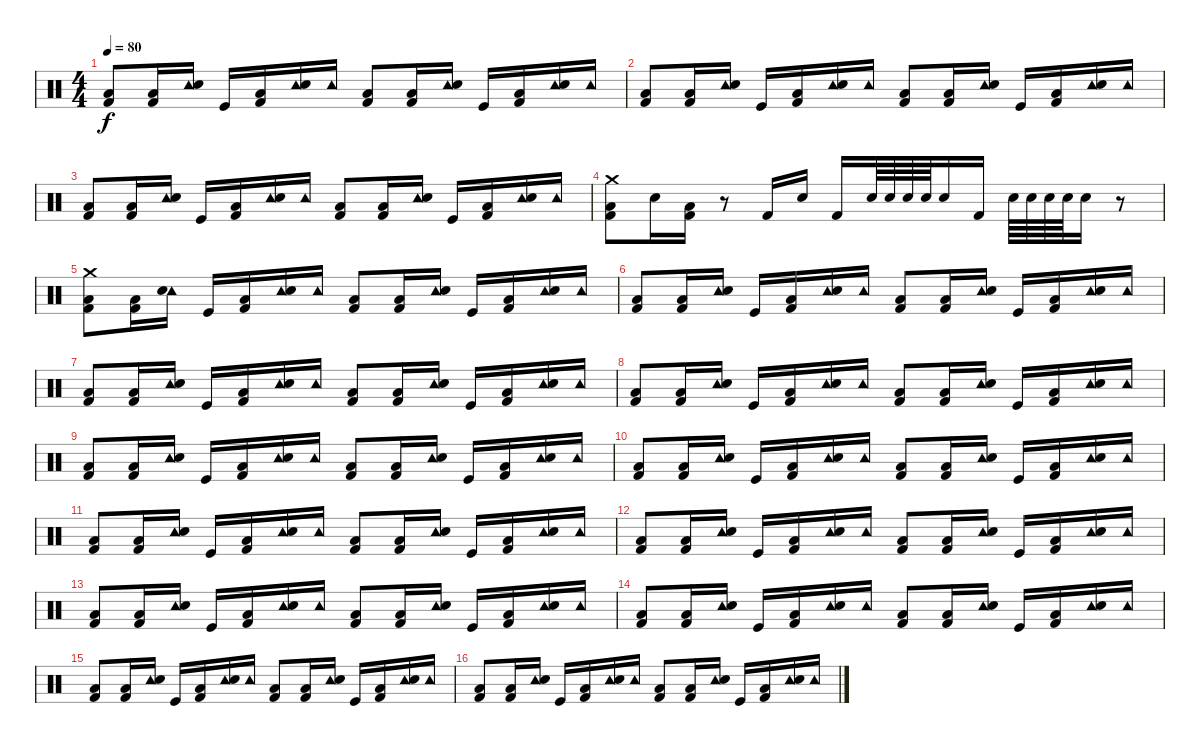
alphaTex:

\track "" {instrument percussion}
\staff {score}
\articulation defaults
\ts (4 4)
\tempo 80
\clef neutral
\ks c
("Kick (hit) 2" "Low Floor Tom (hit)").8{dy f} ("Kick (hit) 2" "Low Floor Tom (hit)").16 ("Tambourine (hit)" "Electric Snare (hit)").16 "Kick (hit)".16 ("Kick (hit) 2" "Low Floor Tom (hit)").16 ("Tambourine (hit)" "Electric Snare (hit)").16 "Tambourine (hit)".16 ("Kick (hit) 2" "Low Floor Tom (hit)").8 ("Kick (hit) 2" "Low Floor Tom (hit)").16 ("Tambourine (hit)" "Electric Snare (hit)").16 "Kick (hit)".16 ("Kick (hit) 2" "Low Floor Tom (hit)").16 ("Tambourine (hit)" "Electric Snare (hit)").16 "Tambourine (hit)".16 |
("Kick (hit) 2" "Low Floor Tom (hit)").8 ("Kick (hit) 2" "Low Floor Tom (hit)").16 ("Tambourine (hit)" "Electric Snare (hit)").16 "Kick (hit)".16 ("Kick (hit) 2" "Low Floor Tom (hit)").16 ("Tambourine (hit)" "Electric Snare (hit)").16 "Tambourine (hit)".16 ("Kick (hit) 2" "Low Floor Tom (hit)").8 ("Kick (hit) 2" "Low Floor Tom (hit)").16 ("Tambourine (hit)" "Electric Snare (hit)").16 "Kick (hit)".16 ("Kick (hit) 2" "Low Floor Tom (hit)").16 ("Tambourine (hit)" "Electric Snare (hit)").16 "Tambourine (hit)".16 |
("Kick (hit) 2" "Low Floor Tom (hit)").8 ("Kick (hit) 2" "Low Floor Tom (hit)").16 ("Tambourine (hit)" "Electric Snare (hit)").16 "Kick (hit)".16 ("Kick (hit) 2" "Low Floor Tom (hit)").16 ("Tambourine (hit)" "Electric Snare (hit)").16 "Tambourine (hit)".16 ("Kick (hit) 2" "Low Floor Tom (hit)").8 ("Kick (hit) 2" "Low Floor Tom (hit)").16 ("Tambourine (hit)" "Electric Snare (hit)").16 "Kick (hit)".16 ("Kick (hit) 2" "Low Floor Tom (hit)").16 ("Tambourine (hit)" "Electric Snare (hit)").16 "Tambourine (hit)".16 |
("Crash medium (hit)" "Kick (hit) 2" "Low Floor Tom (hit)").8 "Electric Snare (hit)".16 ("Kick (hit) 2" "Low Floor Tom (hit)").16 r.8 "Kick (hit) 2".16 "Electric Snare (hit)".16 "Kick (hit) 2".16 "Electric Snare (hit)".64 "Electric Snare (hit)".64 "Electric Snare (hit)".64 "Electric Snare (hit)".64 "Electric Snare (hit)".16 "Kick (hit) 2".16 "Electric Snare (hit)".64 "Electric Snare (hit)".64 "Electric Snare (hit)".64 "Electric Snare (hit)".64 "Electric Snare (hit)".16 r.8 |
("Crash medium (hit)" "Kick (hit) 2" "Low Floor Tom (hit)").8 ("Kick (hit) 2" "Low Floor Tom (hit)").16 ("Tambourine (hit)" "Electric Snare (hit)").16 "Kick (hit)".16 ("Kick (hit) 2" "Low Floor Tom (hit)").16 ("Tambourine (hit)" "Electric Snare (hit)").16 "Tambourine (hit)".16 ("Kick (hit) 2" "Low Floor Tom (hit)").8 ("Kick (hit) 2" "Low Floor Tom (hit)").16 ("Tambourine (hit)" "Electric Snare (hit)").16 "Kick (hit)".16 ("Kick (hit) 2" "Low Floor Tom (hit)").16 ("Tambourine (hit)" "Electric Snare (hit)").16 "Tambourine (hit)".16 |
("Kick (hit) 2" "Low Floor Tom (hit)").8 ("Kick (hit) 2" "Low Floor Tom (hit)").16 ("Tambourine (hit)" "Electric Snare (hit)").16 "Kick (hit)".16 ("Kick (hit) 2" "Low Floor Tom (hit)").16 ("Tambourine (hit)" "Electric Snare (hit)").16 "Tambourine (hit)".16 ("Kick (hit) 2" "Low Floor Tom (hit)").8 ("Kick (hit) 2" "Low Floor Tom (hit)").16 ("Tambourine (hit)" "Electric Snare (hit)").16 "Kick (hit)".16 ("Kick (hit) 2" "Low Floor Tom (hit)").16 ("Tambourine (hit)" "Electric Snare (hit)").16 "Tambourine (hit)".16 |
("Kick (hit) 2" "Low Floor Tom (hit)").8 ("Kick (hit) 2" "Low Floor Tom (hit)").16 ("Tambourine (hit)" "Electric Snare (hit)").16 "Kick (hit)".16 ("Kick (hit) 2" "Low Floor Tom (hit)").16 ("Tambourine (hit)" "Electric Snare (hit)").16 "Tambourine (hit)".16 ("Kick (hit) 2" "Low Floor Tom (hit)").8 ("Kick (hit) 2" "Low Floor Tom (hit)").16 ("Tambourine (hit)" "Electric Snare (hit)").16 "Kick (hit)".16 ("Kick (hit) 2" "Low Floor Tom (hit)").16 ("Tambourine (hit)" "Electric Snare (hit)").16 "Tambourine (hit)".16 |
("Kick (hit) 2" "Low Floor Tom (hit)").8 ("Kick (hit) 2" "Low Floor Tom (hit)").16 ("Tambourine (hit)" "Electric Snare (hit)").16 "Kick (hit)".16 ("Kick (hit) 2" "Low Floor Tom (hit)").16 ("Tambourine (hit)" "Electric Snare (hit)").16 "Tambourine (hit)".16 ("Kick (hit) 2" "Low Floor Tom (hit)").8 ("Kick (hit) 2" "Low Floor Tom (hit)").16 ("Tambourine (hit)" "Electric Snare (hit)").16 "Kick (hit)".16 ("Kick (hit) 2" "Low Floor Tom (hit)").16 ("Tambourine (hit)" "Electric Snare (hit)").16 "Tambourine (hit)".16 |
("Kick (hit) 2" "Low Floor Tom (hit)").8 ("Kick (hit) 2" "Low Floor Tom (hit)").16 ("Tambourine (hit)" "Electric Snare (hit)").16 "Kick (hit)".16 ("Kick (hit) 2" "Low Floor Tom (hit)").16 ("Tambourine (hit)" "Electric Snare (hit)").16 "Tambourine (hit)".16 ("Kick (hit) 2" "Low Floor Tom (hit)").8 ("Kick (hit) 2" "Low Floor Tom (hit)").16 ("Tambourine (hit)" "Electric Snare (hit)").16 "Kick (hit)".16 ("Kick (hit) 2" "Low Floor Tom (hit)").16 ("Tambourine (hit)" "Electric Snare (hit)").16 "Tambourine (hit)".16 |
("Kick (hit) 2" "Low Floor Tom (hit)").8 ("Kick (hit) 2" "Low Floor Tom (hit)").16 ("Tambourine (hit)" "Electric Snare (hit)").16 "Kick (hit)".16 ("Kick (hit) 2" "Low Floor Tom (hit)").16 ("Tambourine (hit)" "Electric Snare (hit)").16 "Tambourine (hit)".16 ("Kick (hit) 2" "Low Floor Tom (hit)").8 ("Kick (hit) 2" "Low Floor Tom (hit)").16 ("Tambourine (hit)" "Electric Snare (hit)").16 "Kick (hit)".16 ("Kick (hit) 2" "Low Floor Tom (hit)").16 ("Tambourine (hit)" "Electric Snare (hit)").16 "Tambourine (hit)".16 |
("Kick (hit) 2" "Low Floor Tom (hit)").8 ("Kick (hit) 2" "Low Floor Tom (hit)").16 ("Tambourine (hit)" "Electric Snare (hit)").16 "Kick (hit)".16 ("Kick (hit) 2" "Low Floor Tom (hit)").16 ("Tambourine (hit)" "Electric Snare (hit)").16 "Tambourine (hit)".16 ("Kick (hit) 2" "Low Floor Tom (hit)").8 ("Kick (hit) 2" "Low Floor Tom (hit)").16 ("Tambourine (hit)" "Electric Snare (hit)").16 "Kick (hit)".16 ("Kick (hit) 2" "Low Floor Tom (hit)").16 ("Tambourine (hit)" "Electric Snare (hit)").16 "Tambourine (hit)".16 |
("Kick (hit) 2" "Low Floor Tom (hit)").8 ("Kick (hit) 2" "Low Floor Tom (hit)").16 ("Tambourine (hit)" "Electric Snare (hit)").16 "Kick (hit)".16 ("Kick (hit) 2" "Low Floor Tom (hit)").16 ("Tambourine (hit)" "Electric Snare (hit)").16 "Tambourine (hit)".16 ("Kick (hit) 2" "Low Floor Tom (hit)").8 ("Kick (hit) 2" "Low Floor Tom (hit)").16 ("Tambourine (hit)" "Electric Snare (hit)").16 "Kick (hit)".16 ("Kick (hit) 2" "Low Floor Tom (hit)").16 ("Tambourine (hit)" "Electric Snare (hit)").16 "Tambourine (hit)".16 |
("Kick (hit) 2" "Low Floor Tom (hit)").8 ("Kick (hit) 2" "Low Floor Tom (hit)").16 ("Tambourine (hit)" "Electric Snare (hit)").16 "Kick (hit)".16 ("Kick (hit) 2" "Low Floor Tom (hit)").16 ("Tambourine (hit)" "Electric Snare (hit)").16 "Tambourine (hit)".16 ("Kick (hit) 2" "Low Floor Tom (hit)").8 ("Kick (hit) 2" "Low Floor Tom (hit)").16 ("Tambourine (hit)" "Electric Snare (hit)").16 "Kick (hit)".16 ("Kick (hit) 2" "Low Floor Tom (hit)").16 ("Tambourine (hit)" "Electric Snare (hit)").16 "Tambourine (hit)".16 |
("Kick (hit) 2" "Low Floor Tom (hit)").8 ("Kick (hit) 2" "Low Floor Tom (hit)").16 ("Tambourine (hit)" "Electric Snare (hit)").16 "Kick (hit)".16 ("Kick (hit) 2" "Low Floor Tom (hit)").16 ("Tambourine (hit)" "Electric Snare (hit)").16 "Tambourine (hit)".16 ("Kick (hit) 2" "Low Floor Tom (hit)").8 ("Kick (hit) 2" "Low Floor Tom (hit)").16 ("Tambourine (hit)" "Electric Snare (hit)").16 "Kick (hit)".16 ("Kick (hit) 2" "Low Floor Tom (hit)").16 ("Tambourine (hit)" "Electric Snare (hit)").16 "Tambourine (hit)".16 |
("Kick (hit) 2" "Low Floor Tom (hit)").8 ("Kick (hit) 2" "Low Floor Tom (hit)").16 ("Tambourine (hit)" "Electric Snare (hit)").16 "Kick (hit)".16 ("Kick (hit) 2" "Low Floor Tom (hit)").16 ("Tambourine (hit)" "Electric Snare (hit)").16 "Tambourine (hit)".16 ("Kick (hit) 2" "Low Floor Tom (hit)").8 ("Kick (hit) 2" "Low Floor Tom (hit)").16 ("Tambourine (hit)" "Electric Snare (hit)").16 "Kick (hit)".16 ("Kick (hit) 2" "Low Floor Tom (hit)").16 ("Tambourine (hit)" "Electric Snare (hit)").16 "Tambourine (hit)".16 |
("Kick (hit) 2" "Low Floor Tom (hit)").8 ("Kick (hit) 2" "Low Floor Tom (hit)").16 ("Tambourine (hit)" "Electric Snare (hit)").16 "Kick (hit)".16 ("Kick (hit) 2" "Low Floor Tom (hit)").16 ("Tambourine (hit)" "Electric Snare (hit)").16 "Tambourine (hit)".16 ("Kick (hit) 2" "Low Floor Tom (hit)").8 ("Kick (hit) 2" "Low Floor Tom (hit)").16 ("Tambourine (hit)" "Electric Snare (hit)").16 "Kick (hit)".16 ("Kick (hit) 2" "Low Floor Tom (hit)").16 ("Tambourine (hit)" "Electric Snare (hit)").16 "Tambourine (hit)".16
